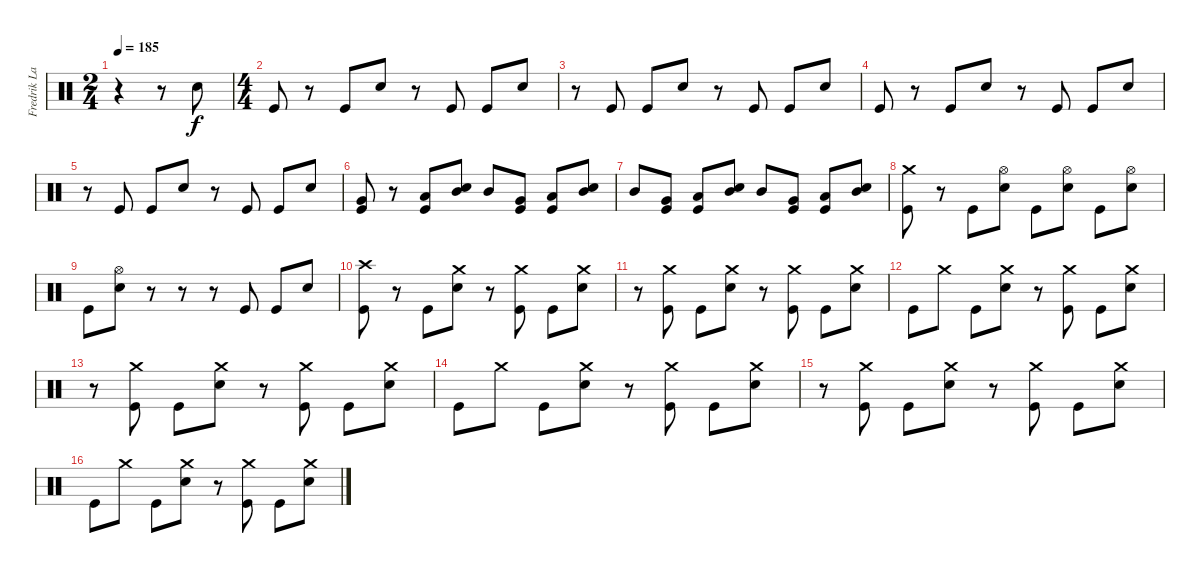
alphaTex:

\track ("Fredrik Larzon" "Fredrik La") {instrument percussion}
\staff {score}
\articulation defaults
\ts (2 4)
\tempo 185
\clef neutral
\ks c
r.4{dy f} r.8 "Electric Snare (hit)".8 |
\ts (4 4)
"Kick (hit)".8 r.8 "Kick (hit)".8 "Electric Snare (hit)".8 r.8 "Kick (hit)".8 "Kick (hit)".8 "Electric Snare (hit)".8 |
r.8 "Kick (hit)".8 "Kick (hit)".8 "Electric Snare (hit)".8 r.8 "Kick (hit)".8 "Kick (hit)".8 "Electric Snare (hit)".8 |
"Kick (hit)".8 r.8 "Kick (hit)".8 "Electric Snare (hit)".8 r.8 "Kick (hit)".8 "Kick (hit)".8 "Electric Snare (hit)".8 |
r.8 "Kick (hit)".8 "Kick (hit)".8 "Electric Snare (hit)".8 r.8 "Kick (hit)".8 "Kick (hit)".8 "Electric Snare (hit)".8 |
("Very Low Tom (hit)" "Kick (hit)").8 r.8 ("Low Tom (hit)" "Kick (hit)").8 ("Mid Tom (hit)" "Electric Snare (hit)").8 "Mid Tom (hit)".8 ("Very Low Tom (hit)" "Kick (hit)").8 ("Low Tom (hit)" "Kick (hit)").8 ("Mid Tom (hit)" "Electric Snare (hit)").8 |
"Mid Tom (hit)".8 ("Very Low Tom (hit)" "Kick (hit)").8 ("Low Tom (hit)" "Kick (hit)").8 ("Mid Tom (hit)" "Electric Snare (hit)").8 "Mid Tom (hit)".8 ("Very Low Tom (hit)" "Kick (hit)").8 ("Low Tom (hit)" "Kick (hit)").8 ("Mid Tom (hit)" "Electric Snare (hit)").8 |
("Crash medium (hit)" "Kick (hit)").8 r.8 "Kick (hit)".8 ("Hi-Hat (open)" "Electric Snare (hit)").8 "Kick (hit)".8 ("Hi-Hat (open)" "Electric Snare (hit)").8 "Kick (hit)".8 ("Hi-Hat (open)" "Electric Snare (hit)").8 |
"Kick (hit)".8 ("Hi-Hat (open)" "Electric Snare (hit)").8 r.8 r.8 r.8 "Kick (hit)".8 "Kick (hit)".8 "Electric Snare (hit)".8 |
("Crash high (hit)" "Kick (hit)").8 r.8 "Kick (hit)".8 ("Crash medium (hit)" "Electric Snare (hit)").8 r.8 ("Crash medium (hit)" "Kick (hit)").8 "Kick (hit)".8 ("Crash medium (hit)" "Electric Snare (hit)").8 |
r.8 ("Crash medium (hit)" "Kick (hit)").8 "Kick (hit)".8 ("Crash medium (hit)" "Electric Snare (hit)").8 r.8 ("Crash medium (hit)" "Kick (hit)").8 "Kick (hit)".8 ("Crash medium (hit)" "Electric Snare (hit)").8 |
"Kick (hit)".8 "Crash medium (hit)".8 "Kick (hit)".8 ("Crash medium (hit)" "Electric Snare (hit)").8 r.8 ("Crash medium (hit)" "Kick (hit)").8 "Kick (hit)".8 ("Crash medium (hit)" "Electric Snare (hit)").8 |
r.8 ("Crash medium (hit)" "Kick (hit)").8 "Kick (hit)".8 ("Crash medium (hit)" "Electric Snare (hit)").8 r.8 ("Crash medium (hit)" "Kick (hit)").8 "Kick (hit)".8 ("Crash medium (hit)" "Electric Snare (hit)").8 |
"Kick (hit)".8 "Crash medium (hit)".8 "Kick (hit)".8 ("Crash medium (hit)" "Electric Snare (hit)").8 r.8 ("Crash medium (hit)" "Kick (hit)").8 "Kick (hit)".8 ("Crash medium (hit)" "Electric Snare (hit)").8 |
r.8 ("Crash medium (hit)" "Kick (hit)").8 "Kick (hit)".8 ("Crash medium (hit)" "Electric Snare (hit)").8 r.8 ("Crash medium (hit)" "Kick (hit)").8 "Kick (hit)".8 ("Crash medium (hit)" "Electric Snare (hit)").8 |
"Kick (hit)".8 "Crash medium (hit)".8 "Kick (hit)".8 ("Crash medium (hit)" "Electric Snare (hit)").8 r.8 ("Crash medium (hit)" "Kick (hit)").8 "Kick (hit)".8 ("Crash medium (hit)" "Electric Snare (hit)").8
